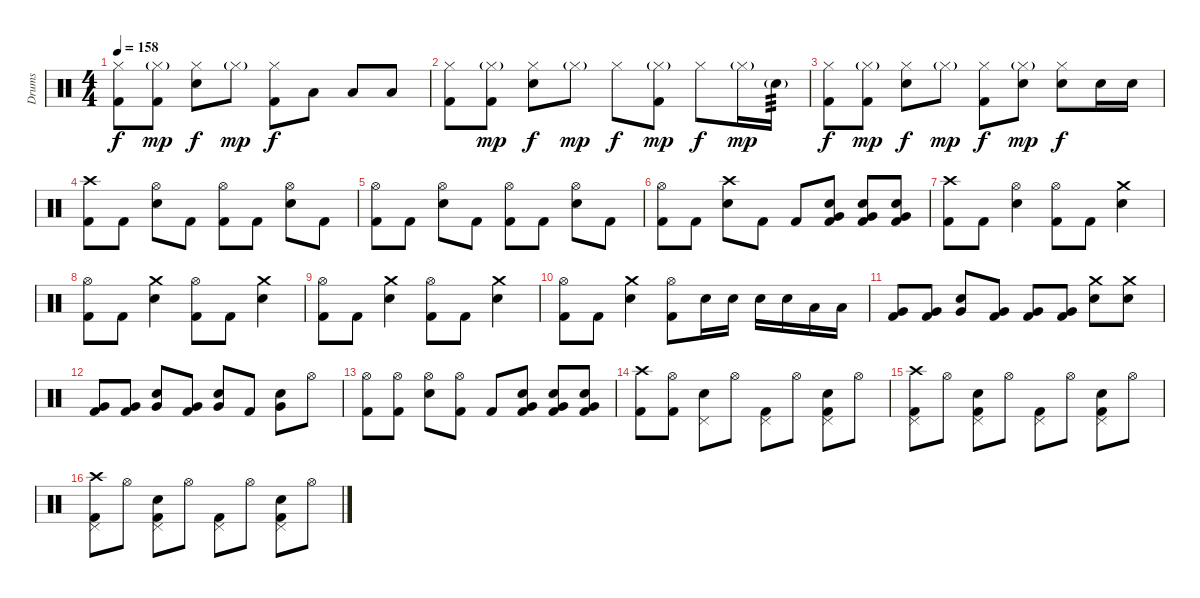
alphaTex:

\track ("Drums" "Drums") {instrument percussion}
\staff {score}
\articulation defaults
\ts (4 4)
\tempo 158
\clef neutral
\ks c
("Hi-Hat (closed)" "Kick (hit) 2").8{dy f} ("Hi-Hat (closed)"{g} "Kick (hit) 2").8{dy mp} ("Hi-Hat (closed)" "Snare (hit) 2").8{dy f} "Hi-Hat (closed)"{g}.8{dy mp} ("Hi-Hat (closed)" "Kick (hit) 2").8{dy f} "Low Tom (hit)".8 "Low Tom (hit)".8 "Low Tom (hit)".8 |
("Hi-Hat (closed)" "Kick (hit) 2").8 ("Hi-Hat (closed)"{g} "Kick (hit) 2").8{dy mp} ("Hi-Hat (closed)" "Snare (hit) 2").8{dy f} "Hi-Hat (closed)"{g}.8{dy mp} "Hi-Hat (closed)".8{dy f} ("Hi-Hat (closed)"{g} "Kick (hit) 2").8{dy mp} "Hi-Hat (closed)".8{dy f} "Hi-Hat (closed)"{g}.16{dy mp} "Snare (hit) 2"{g}.16{tp 3} |
("Hi-Hat (closed)" "Kick (hit) 2").8{dy f} ("Hi-Hat (closed)"{g} "Kick (hit) 2").8{dy mp} ("Hi-Hat (closed)" "Snare (hit) 2").8{dy f} "Hi-Hat (closed)"{g}.8{dy mp} ("Hi-Hat (closed)" "Kick (hit) 2").8{dy f} ("Hi-Hat (closed)"{g} "Snare (hit) 2").8{dy mp} ("Hi-Hat (closed)" "Snare (hit) 2").8{dy f} "Snare (hit) 2".16 "Snare (hit) 2".16 |
("Crash high (hit)" "Kick (hit) 2").8 "Kick (hit) 2".8 ("Hi-Hat (open)" "Snare (hit) 2").8 "Kick (hit) 2".8 ("Hi-Hat (open)" "Kick (hit) 2").8 "Kick (hit) 2".8 ("Hi-Hat (open)" "Snare (hit) 2").8 "Kick (hit) 2".8 |
("Hi-Hat (open)" "Kick (hit) 2").8 "Kick (hit) 2".8 ("Hi-Hat (open)" "Snare (hit) 2").8 "Kick (hit) 2".8 ("Hi-Hat (open)" "Kick (hit) 2").8 "Kick (hit) 2".8 ("Hi-Hat (open)" "Snare (hit) 2").8 "Kick (hit) 2".8 |
("Hi-Hat (open)" "Kick (hit) 2").8 "Kick (hit) 2".8 ("Crash high (hit)" "Snare (hit) 2").8 "Kick (hit) 2".8 "Kick (hit) 2".8 ("Snare (hit) 2" "Very Low Tom (hit)" "Kick (hit) 2").8 ("Snare (hit) 2" "Very Low Tom (hit)" "Kick (hit) 2").8 ("Snare (hit) 2" "Very Low Tom (hit)" "Kick (hit) 2").8 |
("Crash high (hit)" "Kick (hit) 2").8 "Kick (hit) 2".8 ("Hi-Hat (open)" "Snare (hit) 2").4 ("Hi-Hat (open)" "Kick (hit) 2").8 "Kick (hit) 2".8 ("Crash medium (hit)" "Snare (hit) 2").4 |
("Hi-Hat (open)" "Kick (hit) 2").8 "Kick (hit) 2".8 ("Crash medium (hit)" "Snare (hit) 2").4 ("Hi-Hat (open)" "Kick (hit) 2").8 "Kick (hit) 2".8 ("Crash medium (hit)" "Snare (hit) 2").4 |
("Hi-Hat (open)" "Kick (hit) 2").8 "Kick (hit) 2".8 ("Crash medium (hit)" "Snare (hit) 2").4 ("Hi-Hat (open)" "Kick (hit) 2").8 "Kick (hit) 2".8 ("Crash medium (hit)" "Snare (hit) 2").4 |
("Hi-Hat (open)" "Kick (hit) 2").8 "Kick (hit) 2".8 ("Crash medium (hit)" "Snare (hit) 2").4 ("Hi-Hat (open)" "Kick (hit) 2").8 "Snare (hit) 2".16 "Snare (hit) 2".16 "Snare (hit) 2".16 "Snare (hit) 2".16 "Low Tom (hit)".16 "Low Tom (hit)".16 |
("Very Low Tom (hit)" "Kick (hit) 2").8 ("Very Low Tom (hit)" "Kick (hit) 2").8 ("Snare (hit) 2" "Very Low Tom (hit)").8 ("Very Low Tom (hit)" "Kick (hit) 2").8 ("Very Low Tom (hit)" "Kick (hit) 2").8 ("Very Low Tom (hit)" "Kick (hit) 2").8 ("Crash medium (hit)" "Snare (hit) 2").8 ("Crash medium (hit)" "Snare (hit) 2").8 |
("Very Low Tom (hit)" "Kick (hit) 2").8 ("Very Low Tom (hit)" "Kick (hit) 2").8 ("Snare (hit) 2" "Very Low Tom (hit)").8 ("Very Low Tom (hit)" "Kick (hit) 2").8 ("Snare (hit) 2" "Very Low Tom (hit)").8 "Kick (hit) 2".8 ("Snare (hit) 2" "Very Low Tom (hit)").8 "Hi-Hat (open)".8 |
("Hi-Hat (open)" "Kick (hit) 2").8 ("Hi-Hat (open)" "Kick (hit) 2").8 ("Hi-Hat (open)" "Snare (hit) 2").8 ("Hi-Hat (open)" "Kick (hit) 2").8 "Kick (hit) 2".8 ("Snare (hit) 2" "Very Low Tom (hit)" "Kick (hit) 2").8 ("Snare (hit) 2" "Very Low Tom (hit)" "Kick (hit) 2").8 ("Snare (hit) 2" "Very Low Tom (hit)" "Kick (hit) 2").8 |
("Crash high (hit)" "Kick (hit) 2").8 ("Hi-Hat (open)" "Kick (hit) 2").8 ("Pedal Hi-Hat (hit)" "Snare (hit) 2").8 "Hi-Hat (open)".8 ("Pedal Hi-Hat (hit)" "Kick (hit) 2").8 "Hi-Hat (open)".8 ("Pedal Hi-Hat (hit)" "Snare (hit) 2" "Kick (hit) 2").8 "Hi-Hat (open)".8 |
("Crash high (hit)" "Pedal Hi-Hat (hit)" "Kick (hit) 2").8 "Hi-Hat (open)".8 ("Pedal Hi-Hat (hit)" "Snare (hit) 2" "Kick (hit) 2").8 "Hi-Hat (open)".8 ("Pedal Hi-Hat (hit)" "Kick (hit) 2").8 "Hi-Hat (open)".8 ("Pedal Hi-Hat (hit)" "Snare (hit) 2" "Kick (hit) 2").8 "Hi-Hat (open)".8 |
("Crash high (hit)" "Pedal Hi-Hat (hit)" "Kick (hit) 2").8 "Hi-Hat (open)".8 ("Pedal Hi-Hat (hit)" "Snare (hit) 2" "Kick (hit) 2").8 "Hi-Hat (open)".8 ("Pedal Hi-Hat (hit)" "Kick (hit) 2").8 "Hi-Hat (open)".8 ("Pedal Hi-Hat (hit)" "Snare (hit) 2" "Kick (hit) 2").8 "Hi-Hat (open)".8
